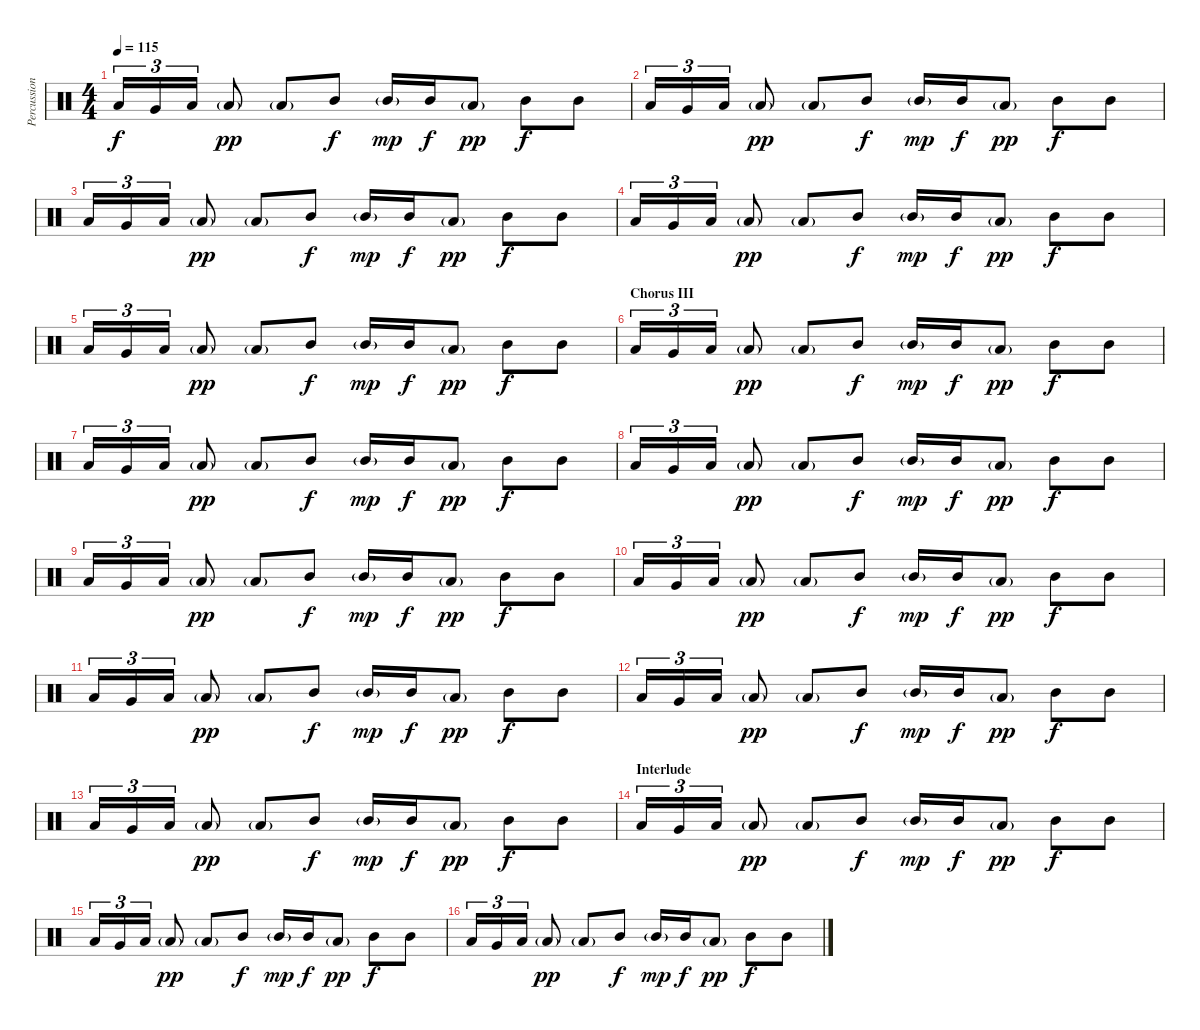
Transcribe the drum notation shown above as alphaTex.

\track ("Percussion - High Tom" "Percussion") {instrument percussion}
\staff {score}
\articulation defaults
\ts (4 4)
\tempo 115
\clef neutral
\ks c "Low Floor Tom (hit)".16{tu (3 2) dy f} "Very Low Tom (hit)".16{tu (3 2)} "Low Floor Tom (hit)".16{tu (3 2)} "Low Tom (hit)"{g}.8{dy pp} "Low Tom (hit)"{g}.8 "Mid Tom (hit)".8{dy f} "Mid Tom (hit)"{g}.16{dy mp} "Mid Tom (hit)".16{dy f} "Low Tom (hit)"{g}.8{dy pp} "Mid Tom (hit)".8{dy f} "Mid Tom (hit)".8
|
"Low Floor Tom (hit)".16{tu (3 2)} "Very Low Tom (hit)".16{tu (3 2)} "Low Floor Tom (hit)".16{tu (3 2)} "Low Tom (hit)"{g}.8{dy pp} "Low Tom (hit)"{g}.8 "Mid Tom (hit)".8{dy f} "Mid Tom (hit)"{g}.16{dy mp} "Mid Tom (hit)".16{dy f} "Low Tom (hit)"{g}.8{dy pp} "Mid Tom (hit)".8{dy f} "Mid Tom (hit)".8 |
"Low Floor Tom (hit)".16{tu (3 2)} "Very Low Tom (hit)".16{tu (3 2)} "Low Floor Tom (hit)".16{tu (3 2)} "Low Tom (hit)"{g}.8{dy pp} "Low Tom (hit)"{g}.8 "Mid Tom (hit)".8{dy f} "Mid Tom (hit)"{g}.16{dy mp} "Mid Tom (hit)".16{dy f} "Low Tom (hit)"{g}.8{dy pp} "Mid Tom (hit)".8{dy f} "Mid Tom (hit)".8 |
"Low Floor Tom (hit)".16{tu (3 2)} "Very Low Tom (hit)".16{tu (3 2)} "Low Floor Tom (hit)".16{tu (3 2)} "Low Tom (hit)"{g}.8{dy pp} "Low Tom (hit)"{g}.8 "Mid Tom (hit)".8{dy f} "Mid Tom (hit)"{g}.16{dy mp} "Mid Tom (hit)".16{dy f} "Low Tom (hit)"{g}.8{dy pp} "Mid Tom (hit)".8{dy f} "Mid Tom (hit)".8 |
"Low Floor Tom (hit)".16{tu (3 2)} "Very Low Tom (hit)".16{tu (3 2)} "Low Floor Tom (hit)".16{tu (3 2)} "Low Tom (hit)"{g}.8{dy pp} "Low Tom (hit)"{g}.8 "Mid Tom (hit)".8{dy f} "Mid Tom (hit)"{g}.16{dy mp} "Mid Tom (hit)".16{dy f} "Low Tom (hit)"{g}.8{dy pp} "Mid Tom (hit)".8{dy f} "Mid Tom (hit)".8 |
\section ("" "Chorus III")
"Low Floor Tom (hit)".16{tu (3 2)} "Very Low Tom (hit)".16{tu (3 2)} "Low Floor Tom (hit)".16{tu (3 2)} "Low Tom (hit)"{g}.8{dy pp} "Low Tom (hit)"{g}.8 "Mid Tom (hit)".8{dy f} "Mid Tom (hit)"{g}.16{dy mp} "Mid Tom (hit)".16{dy f} "Low Tom (hit)"{g}.8{dy pp} "Mid Tom (hit)".8{dy f} "Mid Tom (hit)".8 |
"Low Floor Tom (hit)".16{tu (3 2)} "Very Low Tom (hit)".16{tu (3 2)} "Low Floor Tom (hit)".16{tu (3 2)} "Low Tom (hit)"{g}.8{dy pp} "Low Tom (hit)"{g}.8 "Mid Tom (hit)".8{dy f} "Mid Tom (hit)"{g}.16{dy mp} "Mid Tom (hit)".16{dy f} "Low Tom (hit)"{g}.8{dy pp} "Mid Tom (hit)".8{dy f} "Mid Tom (hit)".8 |
"Low Floor Tom (hit)".16{tu (3 2)} "Very Low Tom (hit)".16{tu (3 2)} "Low Floor Tom (hit)".16{tu (3 2)} "Low Tom (hit)"{g}.8{dy pp} "Low Tom (hit)"{g}.8 "Mid Tom (hit)".8{dy f} "Mid Tom (hit)"{g}.16{dy mp} "Mid Tom (hit)".16{dy f} "Low Tom (hit)"{g}.8{dy pp} "Mid Tom (hit)".8{dy f} "Mid Tom (hit)".8 |
"Low Floor Tom (hit)".16{tu (3 2)} "Very Low Tom (hit)".16{tu (3 2)} "Low Floor Tom (hit)".16{tu (3 2)} "Low Tom (hit)"{g}.8{dy pp} "Low Tom (hit)"{g}.8 "Mid Tom (hit)".8{dy f} "Mid Tom (hit)"{g}.16{dy mp} "Mid Tom (hit)".16{dy f} "Low Tom (hit)"{g}.8{dy pp} "Mid Tom (hit)".8{dy f} "Mid Tom (hit)".8 |
"Low Floor Tom (hit)".16{tu (3 2)} "Very Low Tom (hit)".16{tu (3 2)} "Low Floor Tom (hit)".16{tu (3 2)} "Low Tom (hit)"{g}.8{dy pp} "Low Tom (hit)"{g}.8 "Mid Tom (hit)".8{dy f} "Mid Tom (hit)"{g}.16{dy mp} "Mid Tom (hit)".16{dy f} "Low Tom (hit)"{g}.8{dy pp} "Mid Tom (hit)".8{dy f} "Mid Tom (hit)".8 |
"Low Floor Tom (hit)".16{tu (3 2)} "Very Low Tom (hit)".16{tu (3 2)} "Low Floor Tom (hit)".16{tu (3 2)} "Low Tom (hit)"{g}.8{dy pp} "Low Tom (hit)"{g}.8 "Mid Tom (hit)".8{dy f} "Mid Tom (hit)"{g}.16{dy mp} "Mid Tom (hit)".16{dy f} "Low Tom (hit)"{g}.8{dy pp} "Mid Tom (hit)".8{dy f} "Mid Tom (hit)".8 |
"Low Floor Tom (hit)".16{tu (3 2)} "Very Low Tom (hit)".16{tu (3 2)} "Low Floor Tom (hit)".16{tu (3 2)} "Low Tom (hit)"{g}.8{dy pp} "Low Tom (hit)"{g}.8 "Mid Tom (hit)".8{dy f} "Mid Tom (hit)"{g}.16{dy mp} "Mid Tom (hit)".16{dy f} "Low Tom (hit)"{g}.8{dy pp} "Mid Tom (hit)".8{dy f} "Mid Tom (hit)".8 |
"Low Floor Tom (hit)".16{tu (3 2)} "Very Low Tom (hit)".16{tu (3 2)} "Low Floor Tom (hit)".16{tu (3 2)} "Low Tom (hit)"{g}.8{dy pp} "Low Tom (hit)"{g}.8 "Mid Tom (hit)".8{dy f} "Mid Tom (hit)"{g}.16{dy mp} "Mid Tom (hit)".16{dy f} "Low Tom (hit)"{g}.8{dy pp} "Mid Tom (hit)".8{dy f} "Mid Tom (hit)".8 |
\section ("" "Interlude")
"Low Floor Tom (hit)".16{tu (3 2)} "Very Low Tom (hit)".16{tu (3 2)} "Low Floor Tom (hit)".16{tu (3 2)} "Low Tom (hit)"{g}.8{dy pp} "Low Tom (hit)"{g}.8 "Mid Tom (hit)".8{dy f} "Mid Tom (hit)"{g}.16{dy mp} "Mid Tom (hit)".16{dy f} "Low Tom (hit)"{g}.8{dy pp} "Mid Tom (hit)".8{dy f} "Mid Tom (hit)".8 |
"Low Floor Tom (hit)".16{tu (3 2)} "Very Low Tom (hit)".16{tu (3 2)} "Low Floor Tom (hit)".16{tu (3 2)} "Low Tom (hit)"{g}.8{dy pp} "Low Tom (hit)"{g}.8 "Mid Tom (hit)".8{dy f} "Mid Tom (hit)"{g}.16{dy mp} "Mid Tom (hit)".16{dy f} "Low Tom (hit)"{g}.8{dy pp} "Mid Tom (hit)".8{dy f} "Mid Tom (hit)".8 |
"Low Floor Tom (hit)".16{tu (3 2)} "Very Low Tom (hit)".16{tu (3 2)} "Low Floor Tom (hit)".16{tu (3 2)} "Low Tom (hit)"{g}.8{dy pp} "Low Tom (hit)"{g}.8 "Mid Tom (hit)".8{dy f} "Mid Tom (hit)"{g}.16{dy mp} "Mid Tom (hit)".16{dy f} "Low Tom (hit)"{g}.8{dy pp} "Mid Tom (hit)".8{dy f} "Mid Tom (hit)".8
